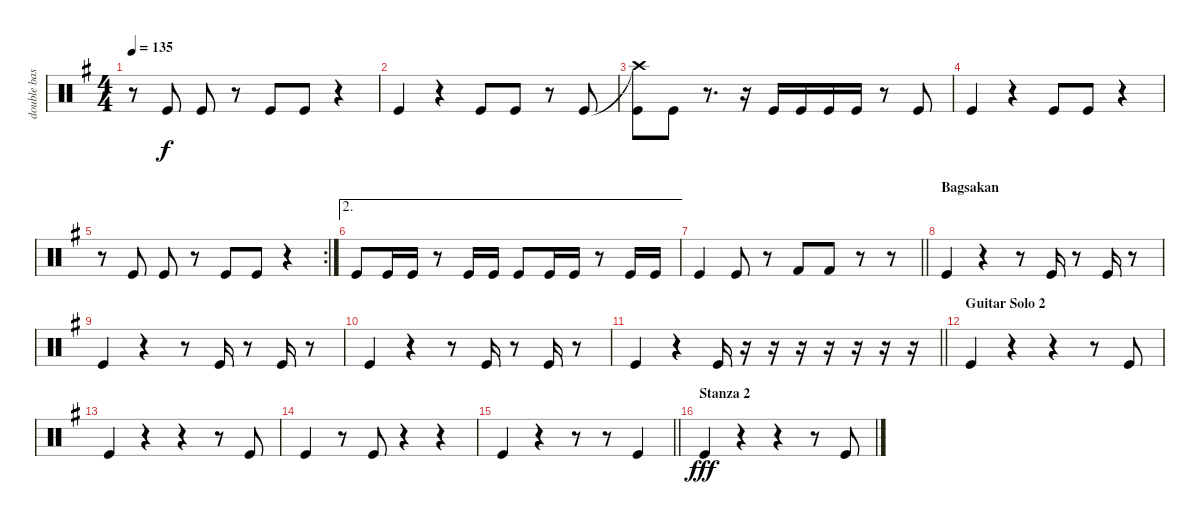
\track ("double bass" "double bas") {instrument percussion}
\staff {score}
\articulation defaults
\ts (4 4)
\tempo 135
\clef neutral
\ks eminor
r.8{dy f} "Kick (hit)".8 "Kick (hit)".8 r.8 "Kick (hit)".8 "Kick (hit)".8 r.4 |
"Kick (hit)".4 r.4 "Kick (hit)".8 "Kick (hit)".8 r.8 "Kick (hit)".8 |
("Crash high (hit)"{t} "Kick (hit)").8 "Kick (hit)".8 r.8{d} r.16 "Kick (hit)".16 "Kick (hit)".16 "Kick (hit)".16 "Kick (hit)".16 r.8 "Kick (hit)".8 |
"Kick (hit)".4 r.4 "Kick (hit)".8 "Kick (hit)".8 r.4 |
\rc 2
r.8 "Kick (hit)".8 "Kick (hit)".8 r.8 "Kick (hit)".8 "Kick (hit)".8 r.4 |
\ae 2 "Kick (hit)".8 "Kick (hit)".16 "Kick (hit)".16
r.8 "Kick (hit)".16 "Kick (hit)".16 "Kick (hit)".8 "Kick (hit)".16 "Kick (hit)".16 r.8 "Kick (hit)".16 "Kick (hit)".16 |
\barLineRight lightlight "Kick (hit)".4 "Kick (hit)".8
r.8 "Kick (hit) 2".8 "Kick (hit) 2".8 r.8 r.8 |
\section ("" "Bagsakan")
"Kick (hit)".4 r.4 r.8 "Kick (hit)".16 r.8 "Kick (hit)".16 r.8 |
"Kick (hit)".4 r.4 r.8 "Kick (hit)".16 r.8 "Kick (hit)".16 r.8 |
"Kick (hit)".4 r.4 r.8 "Kick (hit)".16 r.8 "Kick (hit)".16 r.8 |
\barLineRight lightlight "Kick (hit)".4
r.4 "Kick (hit)".16 r.16 r.16 r.16 r.16 r.16 r.16 r.16 |
\section ("" "Guitar Solo 2")
"Kick (hit)".4 r.4 r.4 r.8 "Kick (hit)".8 |
"Kick (hit)".4 r.4 r.4 r.8 "Kick (hit)".8 |
"Kick (hit)".4 r.8 "Kick (hit)".8 r.4 r.4 |
\barLineRight lightlight "Kick (hit)".4
r.4 r.8 r.8 "Kick (hit)".4 |
\section ("" "Stanza 2")
"Kick (hit)".4{dy fff} r.4 r.4 r.8 "Kick (hit)".8
